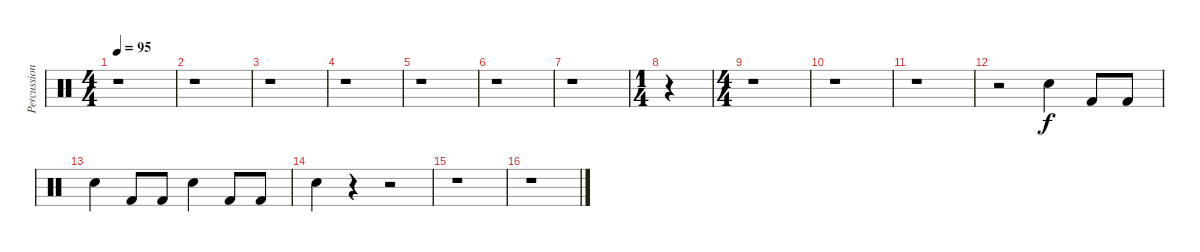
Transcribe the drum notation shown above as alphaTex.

\track ("Percussions" "Percussion") {instrument percussion}
\staff {score}
\articulation defaults
\ts (4 4)
\tempo 95
\clef neutral
\ks c
r.1{dy f} |
r.1 |
r.1 |
r.1 |
r.1 |
r.1 |
r.1 |
\ts (1 4)
r.4 |
\ts (4 4)
r.1 |
r.1 |
r.1 |
r.2 "Snare (hit) 2".4 "Kick (hit) 2".8 "Kick (hit) 2".8 |
"Snare (hit) 2".4 "Kick (hit) 2".8 "Kick (hit) 2".8 "Snare (hit) 2".4 "Kick (hit) 2".8 "Kick (hit) 2".8 |
"Snare (hit) 2".4 r.4 r.2 |
r.1 |
r.1
